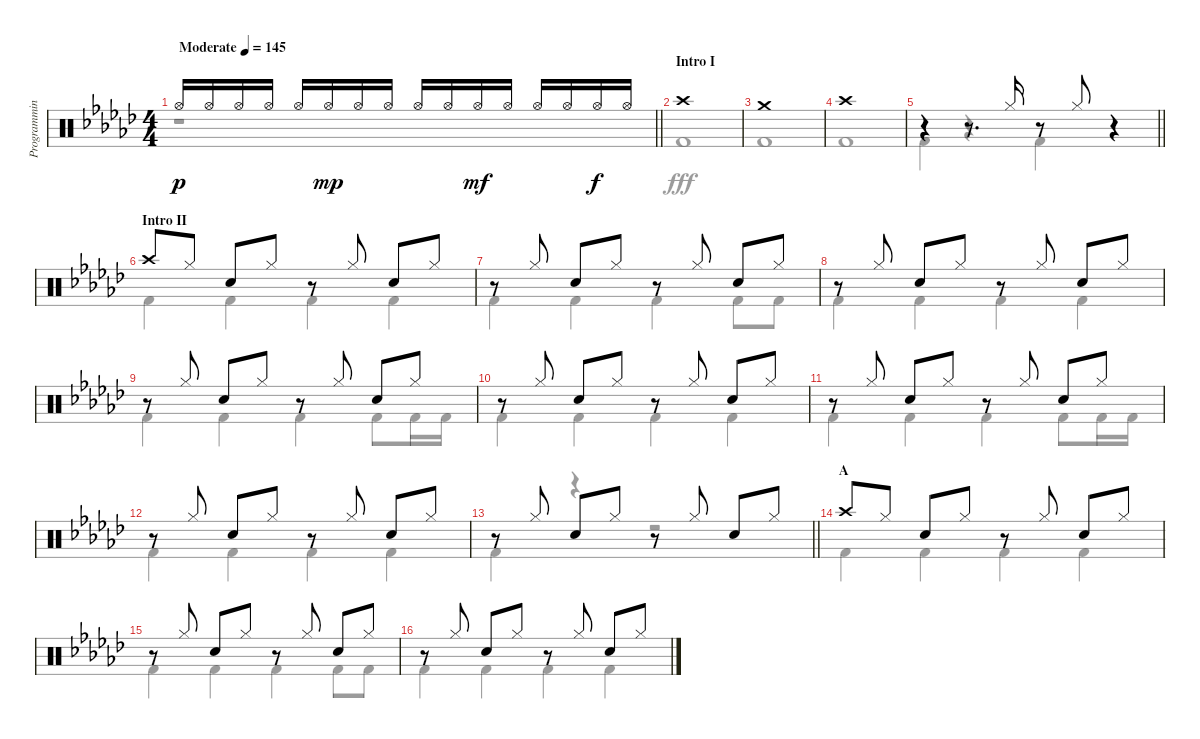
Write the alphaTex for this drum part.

\track ("Programming Drums I" "Programmin") {instrument percussion}
\staff {score}
\articulation defaults
\voice
\ts (4 4)
\tempo (145 "Moderate")
\clef neutral
\barLineRight lightlight
\ks gb "Hi-Hat (open)".16{dy p} "Hi-Hat (open)".16 "Hi-Hat (open)".16 "Hi-Hat (open)".16 "Hi-Hat (open)".16 "Hi-Hat (open)".16{dy mp} "Hi-Hat (open)".16 "Hi-Hat (open)".16 "Hi-Hat (open)".16 "Hi-Hat (open)".16 "Hi-Hat (open)".16{dy mf} "Hi-Hat (open)".16 "Hi-Hat (open)".16 "Hi-Hat (open)".16 "Hi-Hat (open)".16{dy f} "Hi-Hat (open)".16
|
\section ("" "Intro I")
"Crash high (hit)".1 |
"Crash medium (hit)".1 |
"Crash high (hit)".1 |
\barLineRight lightlight
r.4 r.8{d} "Hi-Hat (closed)".16 r.8 "Hi-Hat (closed)".8 r.4 |
\section ("" "Intro II")
"Crash high (hit)".8 "Hi-Hat (closed)".8 "Snare (hit) 2".8 "Hi-Hat (closed)".8 r.8 "Hi-Hat (closed)".8 "Snare (hit) 2".8 "Hi-Hat (closed)".8 |
r.8 "Hi-Hat (closed)".8 "Snare (hit) 2".8 "Hi-Hat (closed)".8 r.8 "Hi-Hat (closed)".8 "Snare (hit) 2".8 "Hi-Hat (closed)".8 |
r.8 "Hi-Hat (closed)".8 "Snare (hit) 2".8 "Hi-Hat (closed)".8 r.8 "Hi-Hat (closed)".8 "Snare (hit) 2".8 "Hi-Hat (closed)".8 |
r.8 "Hi-Hat (closed)".8 "Snare (hit) 2".8 "Hi-Hat (closed)".8 r.8 "Hi-Hat (closed)".8 "Snare (hit) 2".8 "Hi-Hat (closed)".8 |
r.8 "Hi-Hat (closed)".8 "Snare (hit) 2".8 "Hi-Hat (closed)".8 r.8 "Hi-Hat (closed)".8 "Snare (hit) 2".8 "Hi-Hat (closed)".8 |
r.8 "Hi-Hat (closed)".8 "Snare (hit) 2".8 "Hi-Hat (closed)".8 r.8 "Hi-Hat (closed)".8 "Snare (hit) 2".8 "Hi-Hat (closed)".8 |
r.8 "Hi-Hat (closed)".8 "Snare (hit) 2".8 "Hi-Hat (closed)".8 r.8 "Hi-Hat (closed)".8 "Snare (hit) 2".8 "Hi-Hat (closed)".8 |
\barLineRight lightlight
r.8 "Hi-Hat (closed)".8 "Snare (hit) 2".8 "Hi-Hat (closed)".8 r.8 "Hi-Hat (closed)".8 "Snare (hit) 2".8 "Hi-Hat (closed)".8 |
\section ("" "A")
"Crash high (hit)".8 "Hi-Hat (closed)".8 "Snare (hit) 2".8 "Hi-Hat (closed)".8 r.8 "Hi-Hat (closed)".8 "Snare (hit) 2".8 "Hi-Hat (closed)".8 |
r.8 "Hi-Hat (closed)".8 "Snare (hit) 2".8 "Hi-Hat (closed)".8 r.8 "Hi-Hat (closed)".8 "Snare (hit) 2".8 "Hi-Hat (closed)".8 |
r.8 "Hi-Hat (closed)".8 "Snare (hit) 2".8 "Hi-Hat (closed)".8 r.8 "Hi-Hat (closed)".8 "Snare (hit) 2".8 "Hi-Hat (closed)".8
\voice
\clef neutral
\ottava regular
\simile none
\barLineRight lightlight
\ks gb
r.1{dy fff} |
"Kick (hit) 2".1 |
"Kick (hit) 2".1 |
"Kick (hit) 2".1 |
\barLineRight lightlight "Kick (hit) 2".4
r.4 "Kick (hit) 2".4 r.4 |
"Kick (hit) 2".4 "Kick (hit) 2".4 "Kick (hit) 2".4 "Kick (hit) 2".4 |
"Kick (hit) 2".4 "Kick (hit) 2".4 "Kick (hit) 2".4 "Kick (hit) 2".8 "Kick (hit) 2".8 |
"Kick (hit) 2".4 "Kick (hit) 2".4 "Kick (hit) 2".4 "Kick (hit) 2".4 |
"Kick (hit) 2".4 "Kick (hit) 2".4 "Kick (hit) 2".4 "Kick (hit) 2".8 "Kick (hit) 2".16 "Kick (hit) 2".16 |
"Kick (hit) 2".4 "Kick (hit) 2".4 "Kick (hit) 2".4 "Kick (hit) 2".4 |
"Kick (hit) 2".4 "Kick (hit) 2".4 "Kick (hit) 2".4 "Kick (hit) 2".8 "Kick (hit) 2".16 "Kick (hit) 2".16 |
"Kick (hit) 2".4 "Kick (hit) 2".4 "Kick (hit) 2".4 "Kick (hit) 2".4 |
\barLineRight lightlight "Kick (hit) 2".4
r.4 r.2 |
"Kick (hit) 2".4 "Kick (hit) 2".4 "Kick (hit) 2".4 "Kick (hit) 2".4 |
"Kick (hit) 2".4 "Kick (hit) 2".4 "Kick (hit) 2".4 "Kick (hit) 2".8 "Kick (hit) 2".8 |
"Kick (hit) 2".4 "Kick (hit) 2".4 "Kick (hit) 2".4 "Kick (hit) 2".4
